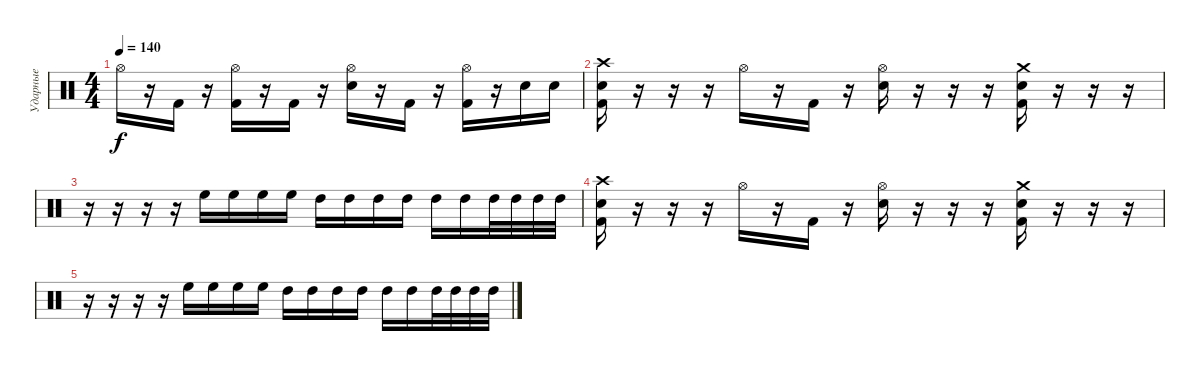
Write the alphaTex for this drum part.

\track ("Ударные" "Ударные") {instrument percussion}
\staff {score}
\articulation defaults
\ts (4 4)
\tempo 140
\clef neutral
\ks c "Hi-Hat (open)".16{dy f}
r.16 "Kick (hit) 2".16 r.16 ("Hi-Hat (open)" "Kick (hit) 2").16 r.16 "Kick (hit) 2".16 r.16 ("Hi-Hat (open)" "Snare (hit) 2").16 r.16 "Kick (hit) 2".16 r.16 ("Hi-Hat (open)" "Kick (hit) 2").16 r.16 "Snare (hit) 2".16 "Snare (hit) 2".16 |
("Crash high (hit)" "Kick (hit) 2" "Snare (hit) 2").16 r.16 r.16 r.16 "Hi-Hat (open)".16 r.16 "Kick (hit) 2".16 r.16 ("Hi-Hat (open)" "Snare (hit) 2").16 r.16 r.16 r.16 ("Crash medium (hit)" "Kick (hit) 2" "Snare (hit) 2").16 r.16 r.16 r.16 |
r.16 r.16 r.16 r.16 "High Floor Tom (hit)".16 "High Floor Tom (hit)".16 "High Floor Tom (hit)".16 "High Floor Tom (hit)".16 "High Tom (hit)".16 "High Tom (hit)".16 "High Tom (hit)".16 "High Tom (hit)".16 "High Tom (hit)".16 "High Tom (hit)".16 "High Tom (hit)".32 "High Tom (hit)".32 "High Tom (hit)".32 "High Tom (hit)".32 |
("Crash high (hit)" "Kick (hit) 2" "Snare (hit) 2").16 r.16 r.16 r.16 "Hi-Hat (open)".16 r.16 "Kick (hit) 2".16 r.16 ("Hi-Hat (open)" "Snare (hit) 2").16 r.16 r.16 r.16 ("Crash medium (hit)" "Kick (hit) 2" "Snare (hit) 2").16 r.16 r.16 r.16 |
r.16 r.16 r.16 r.16 "High Floor Tom (hit)".16 "High Floor Tom (hit)".16 "High Floor Tom (hit)".16 "High Floor Tom (hit)".16 "High Tom (hit)".16 "High Tom (hit)".16 "High Tom (hit)".16 "High Tom (hit)".16 "High Tom (hit)".16 "High Tom (hit)".16 "High Tom (hit)".32 "High Tom (hit)".32 "High Tom (hit)".32 "High Tom (hit)".32
